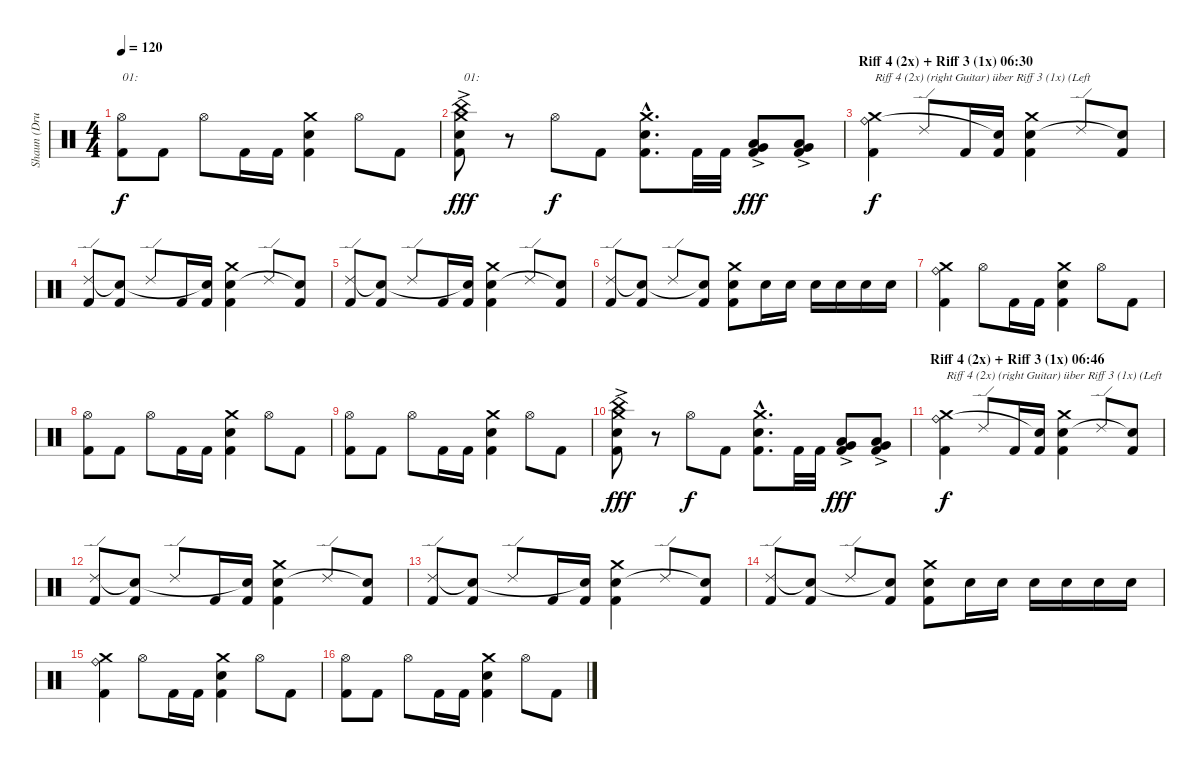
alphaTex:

\track ("Shaun (Drums Of DOOM)" "Shaun (Dru") {instrument percussion}
\staff {score}
\articulation defaults
\ts (4 4)
\tempo 120
\clef neutral
\ks c
("Kick (hit) 2" "Hi-Hat (open)").8{txt "01:" dy f} "Kick (hit) 2".8 "Hi-Hat (open)".8 "Kick (hit) 2".16 "Kick (hit) 2".16 ("Kick (hit) 2" "Electric Snare (hit)" "Crash medium (hit)").4 "Hi-Hat (open)".8 "Kick (hit) 2".8 |
("Kick (hit) 2" "Electric Snare (hit)" "China (hit)"{ac} "Crash medium (hit)"{ac}).8{txt "01:" dy fff} r.8 "Hi-Hat (open)".8{dy f} "Kick (hit) 2".8 ("Kick (hit) 2"{hac} "Electric Snare (hit)"{hac} "Crash medium (hit)"{hac}).8{d} "Kick (hit) 2".32 "Kick (hit) 2".32 ("Kick (hit) 2" "Low Floor Tom (hit)"{ac} "Very Low Tom (hit)"{ac}).8{dy fff} ("Kick (hit) 2" "Low Tom (hit)"{ac} "Very Low Tom (hit)"{ac}).8 |
\section ("" "Riff 4 (2x) + Riff 3 (1x) 06:30")
("Kick (hit) 2" "Ride (bell)" "Crash medium (hit)").4{txt "Riff 4 (2x) (right Guitar) über Riff 3 (1x) (Left " dy f} "Ride (edge) 2".8 "Kick (hit) 2".16 ("Kick (hit) 2" "Snare (hit)"{t}).16 ("Kick (hit) 2" "Electric Snare (hit)" "Crash medium (hit)").4 "Ride (edge) 2".8 ("Kick (hit) 2" "Snare (hit)"{t}).8 |
("Kick (hit) 2" "Ride (edge) 2").8 ("Kick (hit) 2" "Snare (hit)"{t}).8 "Ride (edge) 2".8 "Kick (hit) 2".16 ("Kick (hit) 2" "Snare (hit)"{t}).16 ("Kick (hit) 2" "Electric Snare (hit)" "Crash medium (hit)").4 "Ride (edge) 2".8 ("Kick (hit) 2" "Snare (hit)"{t}).8 |
("Kick (hit) 2" "Ride (edge) 2").8 ("Kick (hit) 2" "Snare (hit)"{t}).8 "Ride (edge) 2".8 "Kick (hit) 2".16 ("Kick (hit) 2" "Snare (hit)"{t}).16 ("Kick (hit) 2" "Electric Snare (hit)" "Crash medium (hit)").4 "Ride (edge) 2".8 ("Kick (hit) 2" "Snare (hit)"{t}).8 |
("Kick (hit) 2" "Ride (edge) 2").8 ("Kick (hit) 2" "Snare (hit)"{t}).8 "Ride (edge) 2".8 ("Kick (hit) 2" "Snare (hit)"{t}).8 ("Kick (hit) 2" "Electric Snare (hit)" "Crash medium (hit)").8 "Electric Snare (hit)".16 "Electric Snare (hit)".16 "Electric Snare (hit)".16 "Electric Snare (hit)".16 "Electric Snare (hit)".16 "Electric Snare (hit)".16 |
("Kick (hit) 2" "Ride (bell)" "Crash medium (hit)").4 "Hi-Hat (open)".8 "Kick (hit) 2".16 "Kick (hit) 2".16 ("Kick (hit) 2" "Electric Snare (hit)" "Crash medium (hit)").4 "Hi-Hat (open)".8 "Kick (hit) 2".8 |
("Kick (hit) 2" "Hi-Hat (open)").8 "Kick (hit) 2".8 "Hi-Hat (open)".8 "Kick (hit) 2".16 "Kick (hit) 2".16 ("Kick (hit) 2" "Electric Snare (hit)" "Crash medium (hit)").4 "Hi-Hat (open)".8 "Kick (hit) 2".8 |
("Kick (hit) 2" "Hi-Hat (open)").8 "Kick (hit) 2".8 "Hi-Hat (open)".8 "Kick (hit) 2".16 "Kick (hit) 2".16 ("Kick (hit) 2" "Electric Snare (hit)" "Crash medium (hit)").4 "Hi-Hat (open)".8 "Kick (hit) 2".8 |
("Kick (hit) 2" "Electric Snare (hit)" "China (hit)"{ac} "Crash medium (hit)"{ac}).8{dy fff} r.8 "Hi-Hat (open)".8{dy f} "Kick (hit) 2".8 ("Kick (hit) 2"{hac} "Electric Snare (hit)"{hac} "Crash medium (hit)"{hac}).8{d} "Kick (hit) 2".32 "Kick (hit) 2".32 ("Kick (hit) 2" "Low Floor Tom (hit)"{ac} "Very Low Tom (hit)"{ac}).8{dy fff} ("Kick (hit) 2" "Low Tom (hit)"{ac} "Very Low Tom (hit)"{ac}).8 |
\section ("" "Riff 4 (2x) + Riff 3 (1x) 06:46")
("Kick (hit) 2" "Ride (bell)" "Crash medium (hit)").4{txt "Riff 4 (2x) (right Guitar) über Riff 3 (1x) (Left " dy f} "Ride (edge) 2".8 "Kick (hit) 2".16 ("Kick (hit) 2" "Snare (hit)"{t}).16 ("Kick (hit) 2" "Electric Snare (hit)" "Crash medium (hit)").4 "Ride (edge) 2".8 ("Kick (hit) 2" "Snare (hit)"{t}).8 |
("Kick (hit) 2" "Ride (edge) 2").8 ("Kick (hit) 2" "Snare (hit)"{t}).8 "Ride (edge) 2".8 "Kick (hit) 2".16 ("Kick (hit) 2" "Snare (hit)"{t}).16 ("Kick (hit) 2" "Electric Snare (hit)" "Crash medium (hit)").4 "Ride (edge) 2".8 ("Kick (hit) 2" "Snare (hit)"{t}).8 |
("Kick (hit) 2" "Ride (edge) 2").8 ("Kick (hit) 2" "Snare (hit)"{t}).8 "Ride (edge) 2".8 "Kick (hit) 2".16 ("Kick (hit) 2" "Snare (hit)"{t}).16 ("Kick (hit) 2" "Electric Snare (hit)" "Crash medium (hit)").4 "Ride (edge) 2".8 ("Kick (hit) 2" "Snare (hit)"{t}).8 |
("Kick (hit) 2" "Ride (edge) 2").8 ("Kick (hit) 2" "Snare (hit)"{t}).8 "Ride (edge) 2".8 ("Kick (hit) 2" "Snare (hit)"{t}).8 ("Kick (hit) 2" "Electric Snare (hit)" "Crash medium (hit)").8 "Electric Snare (hit)".16 "Electric Snare (hit)".16 "Electric Snare (hit)".16 "Electric Snare (hit)".16 "Electric Snare (hit)".16 "Electric Snare (hit)".16 |
("Kick (hit) 2" "Ride (bell)" "Crash medium (hit)").4 "Hi-Hat (open)".8 "Kick (hit) 2".16 "Kick (hit) 2".16 ("Kick (hit) 2" "Electric Snare (hit)" "Crash medium (hit)").4 "Hi-Hat (open)".8 "Kick (hit) 2".8 |
("Kick (hit) 2" "Hi-Hat (open)").8 "Kick (hit) 2".8 "Hi-Hat (open)".8 "Kick (hit) 2".16 "Kick (hit) 2".16 ("Kick (hit) 2" "Electric Snare (hit)" "Crash medium (hit)").4 "Hi-Hat (open)".8 "Kick (hit) 2".8
